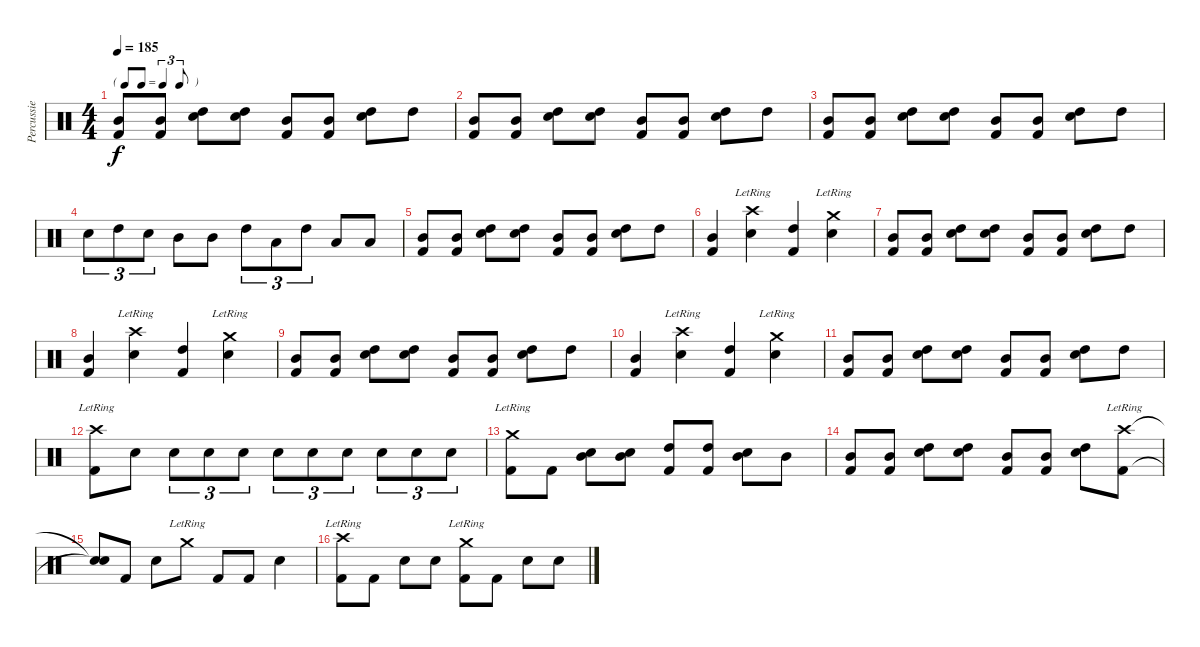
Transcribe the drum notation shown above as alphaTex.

\track ("Percussie" "Percussie") {instrument percussion}
\staff {score}
\articulation defaults
\ts (4 4)
\tf triplet8th
\tempo 185
\clef neutral
\ks c
("Mid Tom (hit)" "Kick (hit) 2").8{dy f} ("Mid Tom (hit)" "Kick (hit) 2").8 ("High Tom (hit)" "Snare (hit) 2").8 ("High Tom (hit)" "Snare (hit) 2").8 ("Mid Tom (hit)" "Kick (hit) 2").8 ("Mid Tom (hit)" "Kick (hit) 2").8 ("High Tom (hit)" "Snare (hit) 2").8 "High Tom (hit)".8 |
("Mid Tom (hit)" "Kick (hit) 2").8 ("Mid Tom (hit)" "Kick (hit) 2").8 ("High Tom (hit)" "Snare (hit) 2").8 ("High Tom (hit)" "Snare (hit) 2").8 ("Mid Tom (hit)" "Kick (hit) 2").8 ("Mid Tom (hit)" "Kick (hit) 2").8 ("High Tom (hit)" "Snare (hit) 2").8 "High Tom (hit)".8 |
("Mid Tom (hit)" "Kick (hit) 2").8 ("Mid Tom (hit)" "Kick (hit) 2").8 ("High Tom (hit)" "Snare (hit) 2").8 ("High Tom (hit)" "Snare (hit) 2").8 ("Mid Tom (hit)" "Kick (hit) 2").8 ("Mid Tom (hit)" "Kick (hit) 2").8 ("High Tom (hit)" "Snare (hit) 2").8 "High Tom (hit)".8 |
"Snare (hit) 2".8{tu (3 2)} "High Tom (hit)".8{tu (3 2)} "Snare (hit) 2".8{tu (3 2)} "Mid Tom (hit)".8 "Mid Tom (hit)".8 "High Tom (hit)".8{tu (3 2)} "Low Tom (hit)".8{tu (3 2)} "High Tom (hit)".8{tu (3 2)} "Low Tom (hit)".8 "Low Tom (hit)".8 |
("Mid Tom (hit)" "Kick (hit) 2").8 ("Mid Tom (hit)" "Kick (hit) 2").8 ("High Tom (hit)" "Snare (hit) 2").8 ("High Tom (hit)" "Snare (hit) 2").8 ("Mid Tom (hit)" "Kick (hit) 2").8 ("Mid Tom (hit)" "Kick (hit) 2").8 ("High Tom (hit)" "Snare (hit) 2").8 "High Tom (hit)".8 |
("Mid Tom (hit)" "Kick (hit) 2").4 ("Crash high (hit)"{lr} "Snare (hit) 2").4 ("High Tom (hit)" "Kick (hit) 2").4 ("Crash medium (hit)"{lr} "Snare (hit) 2").4 |
("Mid Tom (hit)" "Kick (hit) 2").8 ("Mid Tom (hit)" "Kick (hit) 2").8 ("High Tom (hit)" "Snare (hit) 2").8 ("High Tom (hit)" "Snare (hit) 2").8 ("Mid Tom (hit)" "Kick (hit) 2").8 ("Mid Tom (hit)" "Kick (hit) 2").8 ("High Tom (hit)" "Snare (hit) 2").8 "High Tom (hit)".8 |
("Mid Tom (hit)" "Kick (hit) 2").4 ("Crash high (hit)"{lr} "Snare (hit) 2").4 ("High Tom (hit)" "Kick (hit) 2").4 ("Crash medium (hit)"{lr} "Snare (hit) 2").4 |
("Mid Tom (hit)" "Kick (hit) 2").8 ("Mid Tom (hit)" "Kick (hit) 2").8 ("High Tom (hit)" "Snare (hit) 2").8 ("High Tom (hit)" "Snare (hit) 2").8 ("Mid Tom (hit)" "Kick (hit) 2").8 ("Mid Tom (hit)" "Kick (hit) 2").8 ("High Tom (hit)" "Snare (hit) 2").8 "High Tom (hit)".8 |
("Mid Tom (hit)" "Kick (hit) 2").4 ("Crash high (hit)"{lr} "Snare (hit) 2").4 ("High Tom (hit)" "Kick (hit) 2").4 ("Crash medium (hit)"{lr} "Snare (hit) 2").4 |
("Mid Tom (hit)" "Kick (hit) 2").8 ("Mid Tom (hit)" "Kick (hit) 2").8 ("High Tom (hit)" "Snare (hit) 2").8 ("High Tom (hit)" "Snare (hit) 2").8 ("Mid Tom (hit)" "Kick (hit) 2").8 ("Mid Tom (hit)" "Kick (hit) 2").8 ("High Tom (hit)" "Snare (hit) 2").8 "High Tom (hit)".8 |
("Crash high (hit)"{lr} "Kick (hit) 2").8 "Snare (hit) 2".8 "Snare (hit) 2".8{tu (3 2)} "Snare (hit) 2".8{tu (3 2)} "Snare (hit) 2".8{tu (3 2)} "Snare (hit) 2".8{tu (3 2)} "Snare (hit) 2".8{tu (3 2)} "Snare (hit) 2".8{tu (3 2)} "Snare (hit) 2".8{tu (3 2)} "Snare (hit) 2".8{tu (3 2)} "Snare (hit) 2".8{tu (3 2)} |
("Crash medium (hit)"{lr} "Kick (hit) 2").8 "Kick (hit) 2".8 ("Mid Tom (hit)" "Snare (hit) 2").8 ("Mid Tom (hit)" "Snare (hit) 2").8 ("High Tom (hit)" "Kick (hit) 2").8 ("High Tom (hit)" "Kick (hit) 2").8 ("Mid Tom (hit)" "Snare (hit) 2").8 "Mid Tom (hit)".8 |
("Mid Tom (hit)" "Kick (hit) 2").8 ("Mid Tom (hit)" "Kick (hit) 2").8 ("High Tom (hit)" "Snare (hit) 2").8 ("High Tom (hit)" "Snare (hit) 2").8 ("Mid Tom (hit)" "Kick (hit) 2").8 ("Mid Tom (hit)" "Kick (hit) 2").8 ("High Tom (hit)" "Snare (hit) 2").8 ("Crash high (hit)"{lr} "Kick (hit) 2").8 |
("Snare (hit)"{t} "Snare (hit)"{t}).8 "Kick (hit) 2".8 "Snare (hit) 2".8 "Crash medium (hit)"{lr}.8 "Kick (hit) 2".8 "Kick (hit) 2".8 "Snare (hit) 2".4 |
("Crash high (hit)"{lr} "Kick (hit) 2").8 "Kick (hit) 2".8 "Snare (hit) 2".8 "Snare (hit) 2".8 ("Crash medium (hit)"{lr} "Kick (hit) 2").8 "Kick (hit) 2".8 "Snare (hit) 2".8 "Snare (hit) 2".8
